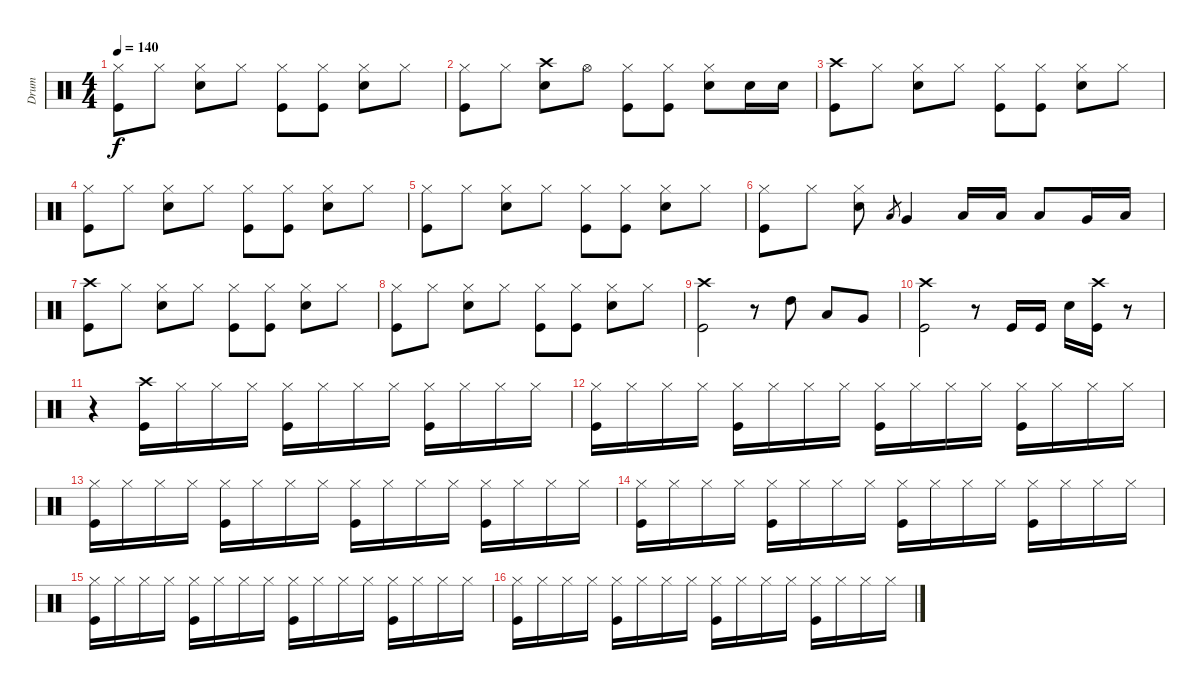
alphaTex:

\track ("Drum" "Drum") {instrument percussion}
\staff {score}
\articulation defaults
\ts (4 4)
\tempo 140
\clef neutral
\ks c
("Hi-Hat (closed)" "Kick (hit)").8{dy f} "Hi-Hat (closed)".8 ("Hi-Hat (closed)" "Snare (hit) 2").8 "Hi-Hat (closed)".8 ("Hi-Hat (closed)" "Kick (hit)").8 ("Hi-Hat (closed)" "Kick (hit)").8 ("Hi-Hat (closed)" "Snare (hit) 2").8 "Hi-Hat (closed)".8 |
("Hi-Hat (closed)" "Kick (hit)").8 "Hi-Hat (closed)".8 ("Crash high (hit)" "Snare (hit) 2").8 "Hi-Hat (open)".8 ("Hi-Hat (closed)" "Kick (hit)").8 ("Hi-Hat (closed)" "Kick (hit)").8 ("Hi-Hat (closed)" "Snare (hit) 2").8 "Snare (hit) 2".16 "Snare (hit) 2".16 |
("Crash high (hit)" "Kick (hit)").8 "Hi-Hat (closed)".8 ("Hi-Hat (closed)" "Snare (hit) 2").8 "Hi-Hat (closed)".8 ("Hi-Hat (closed)" "Kick (hit)").8 ("Hi-Hat (closed)" "Kick (hit)").8 ("Hi-Hat (closed)" "Snare (hit) 2").8 "Hi-Hat (closed)".8 |
("Hi-Hat (closed)" "Kick (hit)").8 "Hi-Hat (closed)".8 ("Hi-Hat (closed)" "Snare (hit) 2").8 "Hi-Hat (closed)".8 ("Hi-Hat (closed)" "Kick (hit)").8 ("Hi-Hat (closed)" "Kick (hit)").8 ("Hi-Hat (closed)" "Snare (hit) 2").8 "Hi-Hat (closed)".8 |
("Hi-Hat (closed)" "Kick (hit)").8 "Hi-Hat (closed)".8 ("Hi-Hat (closed)" "Snare (hit) 2").8 "Hi-Hat (closed)".8 ("Hi-Hat (closed)" "Kick (hit)").8 ("Hi-Hat (closed)" "Kick (hit)").8 ("Hi-Hat (closed)" "Snare (hit) 2").8 "Hi-Hat (closed)".8 |
("Hi-Hat (closed)" "Kick (hit)").8 "Hi-Hat (closed)".8 ("Hi-Hat (closed)" "Snare (hit) 2").8 "Low Floor Tom (hit)".8{gr} "Very Low Tom (hit)".4 "Low Floor Tom (hit)".16 "Low Floor Tom (hit)".16 "Low Tom (hit)".8 "Very Low Tom (hit)".16 "Low Floor Tom (hit)".16 |
("Crash high (hit)" "Kick (hit)").8 "Hi-Hat (closed)".8 ("Hi-Hat (closed)" "Snare (hit) 2").8 "Hi-Hat (closed)".8 ("Hi-Hat (closed)" "Kick (hit)").8 ("Hi-Hat (closed)" "Kick (hit)").8 ("Hi-Hat (closed)" "Snare (hit) 2").8 "Hi-Hat (closed)".8 |
("Hi-Hat (closed)" "Kick (hit)").8 "Hi-Hat (closed)".8 ("Hi-Hat (closed)" "Snare (hit) 2").8 "Hi-Hat (closed)".8 ("Hi-Hat (closed)" "Kick (hit)").8 ("Hi-Hat (closed)" "Kick (hit)").8 ("Hi-Hat (closed)" "Snare (hit) 2").8 "Hi-Hat (closed)".8 |
("Crash high (hit)" "Kick (hit)").2 r.8 "High Tom (hit)".8 "Low Tom (hit)".8 "Very Low Tom (hit)".8 |
("Kick (hit)" "Crash high (hit)").2 r.8 "Kick (hit)".16 "Kick (hit)".16 "Electric Snare (hit)".16 ("Kick (hit)" "Crash high (hit)").16 r.8 |
r.4 ("Crash high (hit)" "Kick (hit)").16 "Hi-Hat (closed)".16 "Hi-Hat (closed)".16 "Hi-Hat (closed)".16 ("Hi-Hat (closed)" "Kick (hit)").16 "Hi-Hat (closed)".16 "Hi-Hat (closed)".16 "Hi-Hat (closed)".16 ("Hi-Hat (closed)" "Kick (hit)").16 "Hi-Hat (closed)".16 "Hi-Hat (closed)".16 "Hi-Hat (closed)".16 |
("Hi-Hat (closed)" "Kick (hit)").16 "Hi-Hat (closed)".16 "Hi-Hat (closed)".16 "Hi-Hat (closed)".16 ("Hi-Hat (closed)" "Kick (hit)").16 "Hi-Hat (closed)".16 "Hi-Hat (closed)".16 "Hi-Hat (closed)".16 ("Hi-Hat (closed)" "Kick (hit)").16 "Hi-Hat (closed)".16 "Hi-Hat (closed)".16 "Hi-Hat (closed)".16 ("Hi-Hat (closed)" "Kick (hit)").16 "Hi-Hat (closed)".16 "Hi-Hat (closed)".16 "Hi-Hat (closed)".16 |
("Hi-Hat (closed)" "Kick (hit)").16 "Hi-Hat (closed)".16 "Hi-Hat (closed)".16 "Hi-Hat (closed)".16 ("Hi-Hat (closed)" "Kick (hit)").16 "Hi-Hat (closed)".16 "Hi-Hat (closed)".16 "Hi-Hat (closed)".16 ("Hi-Hat (closed)" "Kick (hit)").16 "Hi-Hat (closed)".16 "Hi-Hat (closed)".16 "Hi-Hat (closed)".16 ("Hi-Hat (closed)" "Kick (hit)").16 "Hi-Hat (closed)".16 "Hi-Hat (closed)".16 "Hi-Hat (closed)".16 |
("Hi-Hat (closed)" "Kick (hit)").16 "Hi-Hat (closed)".16 "Hi-Hat (closed)".16 "Hi-Hat (closed)".16 ("Hi-Hat (closed)" "Kick (hit)").16 "Hi-Hat (closed)".16 "Hi-Hat (closed)".16 "Hi-Hat (closed)".16 ("Hi-Hat (closed)" "Kick (hit)").16 "Hi-Hat (closed)".16 "Hi-Hat (closed)".16 "Hi-Hat (closed)".16 ("Hi-Hat (closed)" "Kick (hit)").16 "Hi-Hat (closed)".16 "Hi-Hat (closed)".16 "Hi-Hat (closed)".16 |
("Hi-Hat (closed)" "Kick (hit)").16 "Hi-Hat (closed)".16 "Hi-Hat (closed)".16 "Hi-Hat (closed)".16 ("Hi-Hat (closed)" "Kick (hit)").16 "Hi-Hat (closed)".16 "Hi-Hat (closed)".16 "Hi-Hat (closed)".16 ("Hi-Hat (closed)" "Kick (hit)").16 "Hi-Hat (closed)".16 "Hi-Hat (closed)".16 "Hi-Hat (closed)".16 ("Hi-Hat (closed)" "Kick (hit)").16 "Hi-Hat (closed)".16 "Hi-Hat (closed)".16 "Hi-Hat (closed)".16 |
("Hi-Hat (closed)" "Kick (hit)").16 "Hi-Hat (closed)".16 "Hi-Hat (closed)".16 "Hi-Hat (closed)".16 ("Hi-Hat (closed)" "Kick (hit)").16 "Hi-Hat (closed)".16 "Hi-Hat (closed)".16 "Hi-Hat (closed)".16 ("Hi-Hat (closed)" "Kick (hit)").16 "Hi-Hat (closed)".16 "Hi-Hat (closed)".16 "Hi-Hat (closed)".16 ("Hi-Hat (closed)" "Kick (hit)").16 "Hi-Hat (closed)".16 "Hi-Hat (closed)".16 "Hi-Hat (closed)".16
